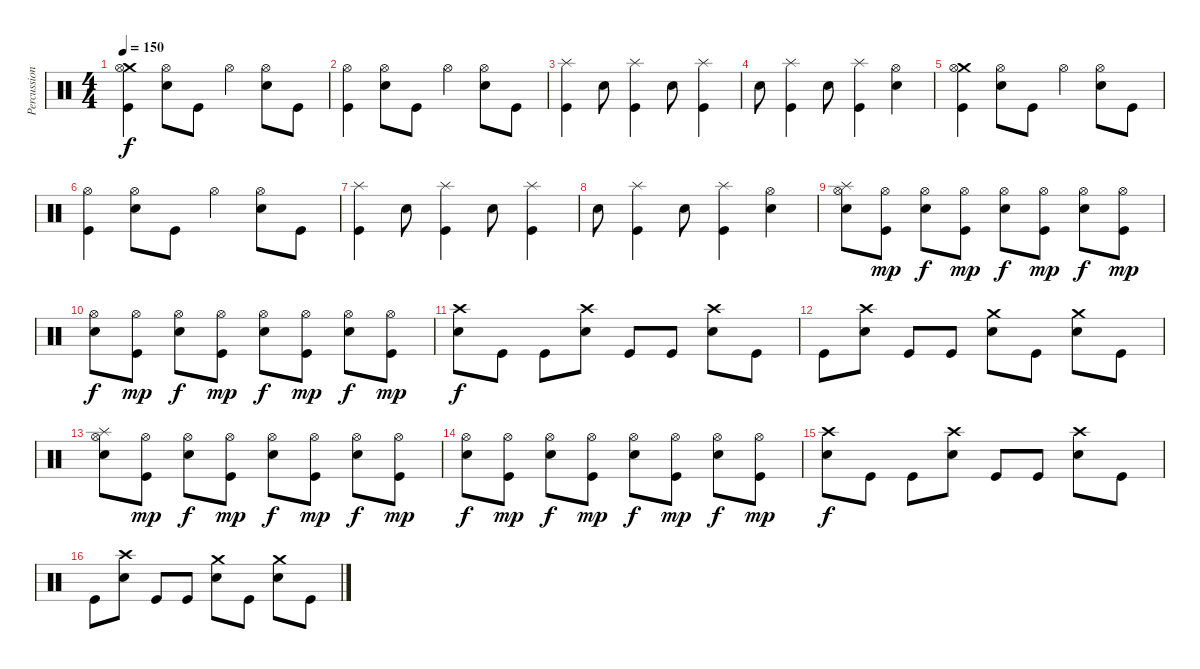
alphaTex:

\track ("Percussions" "Percussion") {instrument percussion}
\staff {score}
\articulation defaults
\ts (4 4)
\tempo 150
\clef neutral
\ks c
("Crash medium (hit)" "Kick (hit)" "Hi-Hat (open)").4{dy f} ("Hi-Hat (open)" "Electric Snare (hit)").8 "Kick (hit)".8 "Hi-Hat (open)".4 ("Hi-Hat (open)" "Electric Snare (hit)").8 "Kick (hit)".8 |
("Kick (hit)" "Hi-Hat (open)").4 ("Hi-Hat (open)" "Electric Snare (hit)").8 "Kick (hit)".8 "Hi-Hat (open)".4 ("Hi-Hat (open)" "Electric Snare (hit)").8 "Kick (hit)".8 |
("Splash (hit)" "Kick (hit)").4 "Electric Snare (hit)".8 ("Splash (hit)" "Kick (hit)").4 "Electric Snare (hit)".8 ("Splash (hit)" "Kick (hit)").4 |
"Electric Snare (hit)".8 ("Splash (hit)" "Kick (hit)").4 "Electric Snare (hit)".8 ("Splash (hit)" "Kick (hit)").4 ("Hi-Hat (open)" "Electric Snare (hit)").4 |
("Crash medium (hit)" "Kick (hit)" "Hi-Hat (open)").4 ("Hi-Hat (open)" "Electric Snare (hit)").8 "Kick (hit)".8 "Hi-Hat (open)".4 ("Hi-Hat (open)" "Electric Snare (hit)").8 "Kick (hit)".8 |
("Kick (hit)" "Hi-Hat (open)").4 ("Hi-Hat (open)" "Electric Snare (hit)").8 "Kick (hit)".8 "Hi-Hat (open)".4 ("Hi-Hat (open)" "Electric Snare (hit)").8 "Kick (hit)".8 |
("Splash (hit)" "Kick (hit)").4 "Electric Snare (hit)".8 ("Splash (hit)" "Kick (hit)").4 "Electric Snare (hit)".8 ("Splash (hit)" "Kick (hit)").4 |
"Electric Snare (hit)".8 ("Splash (hit)" "Kick (hit)").4 "Electric Snare (hit)".8 ("Splash (hit)" "Kick (hit)").4 ("Hi-Hat (open)" "Electric Snare (hit)").4 |
("Splash (hit)" "Hi-Hat (open)" "Electric Snare (hit)").8 ("Hi-Hat (open)" "Kick (hit)").8{dy mp} ("Hi-Hat (open)" "Electric Snare (hit)").8{dy f} ("Hi-Hat (open)" "Kick (hit)").8{dy mp} ("Hi-Hat (open)" "Electric Snare (hit)").8{dy f} ("Hi-Hat (open)" "Kick (hit)").8{dy mp} ("Hi-Hat (open)" "Electric Snare (hit)").8{dy f} ("Hi-Hat (open)" "Kick (hit)").8{dy mp} |
("Hi-Hat (open)" "Electric Snare (hit)").8{dy f} ("Hi-Hat (open)" "Kick (hit)").8{dy mp} ("Hi-Hat (open)" "Electric Snare (hit)").8{dy f} ("Hi-Hat (open)" "Kick (hit)").8{dy mp} ("Hi-Hat (open)" "Electric Snare (hit)").8{dy f} ("Hi-Hat (open)" "Kick (hit)").8{dy mp} ("Hi-Hat (open)" "Electric Snare (hit)").8{dy f} ("Hi-Hat (open)" "Kick (hit)").8{dy mp} |
("Crash high (hit)" "Electric Snare (hit)").8{dy f} "Kick (hit)".8 "Kick (hit)".8 ("Crash high (hit)" "Electric Snare (hit)").8 "Kick (hit)".8 "Kick (hit)".8 ("Crash high (hit)" "Electric Snare (hit)").8 "Kick (hit)".8 |
"Kick (hit)".8 ("Crash high (hit)" "Electric Snare (hit)").8 "Kick (hit)".8 "Kick (hit)".8 ("Crash medium (hit)" "Electric Snare (hit)").8 "Kick (hit)".8 ("Crash medium (hit)" "Electric Snare (hit)").8 "Kick (hit)".8 |
("Splash (hit)" "Hi-Hat (open)" "Electric Snare (hit)").8 ("Hi-Hat (open)" "Kick (hit)").8{dy mp} ("Hi-Hat (open)" "Electric Snare (hit)").8{dy f} ("Hi-Hat (open)" "Kick (hit)").8{dy mp} ("Hi-Hat (open)" "Electric Snare (hit)").8{dy f} ("Hi-Hat (open)" "Kick (hit)").8{dy mp} ("Hi-Hat (open)" "Electric Snare (hit)").8{dy f} ("Hi-Hat (open)" "Kick (hit)").8{dy mp} |
("Hi-Hat (open)" "Electric Snare (hit)").8{dy f} ("Hi-Hat (open)" "Kick (hit)").8{dy mp} ("Hi-Hat (open)" "Electric Snare (hit)").8{dy f} ("Hi-Hat (open)" "Kick (hit)").8{dy mp} ("Hi-Hat (open)" "Electric Snare (hit)").8{dy f} ("Hi-Hat (open)" "Kick (hit)").8{dy mp} ("Hi-Hat (open)" "Electric Snare (hit)").8{dy f} ("Hi-Hat (open)" "Kick (hit)").8{dy mp} |
("Crash high (hit)" "Electric Snare (hit)").8{dy f} "Kick (hit)".8 "Kick (hit)".8 ("Crash high (hit)" "Electric Snare (hit)").8 "Kick (hit)".8 "Kick (hit)".8 ("Crash high (hit)" "Electric Snare (hit)").8 "Kick (hit)".8 |
"Kick (hit)".8 ("Crash high (hit)" "Electric Snare (hit)").8 "Kick (hit)".8 "Kick (hit)".8 ("Crash medium (hit)" "Electric Snare (hit)").8 "Kick (hit)".8 ("Crash medium (hit)" "Electric Snare (hit)").8 "Kick (hit)".8
